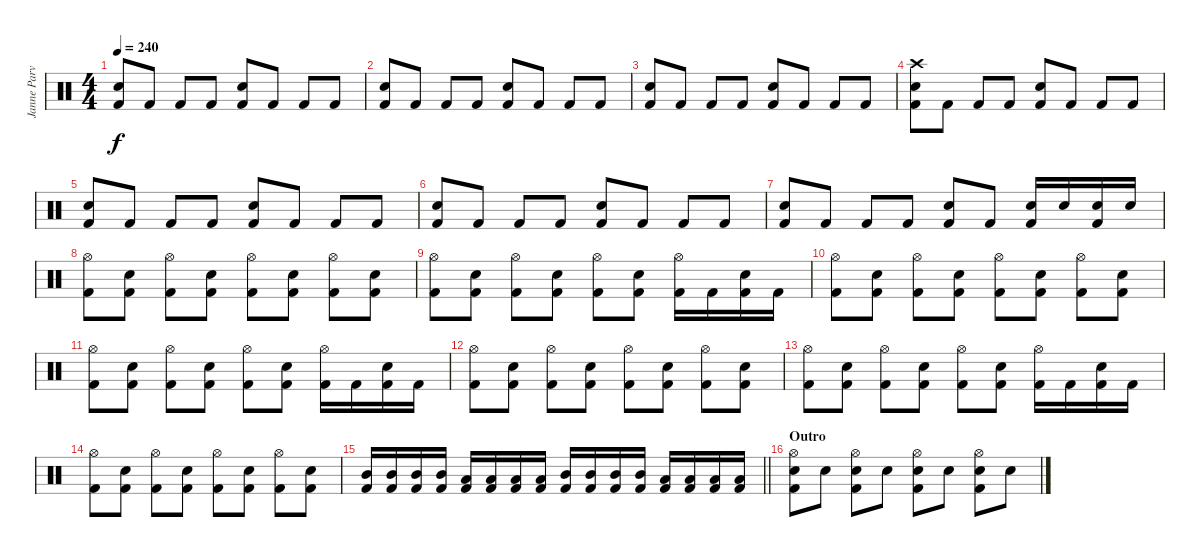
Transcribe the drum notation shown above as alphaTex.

\track ("Janne Parviainen" "Janne Parv") {instrument percussion}
\staff {score}
\articulation defaults
\ts (4 4)
\tempo 240
\clef neutral
\ks c
("Snare (hit) 2" "Kick (hit) 2").8{dy f} "Kick (hit) 2".8 "Kick (hit) 2".8 "Kick (hit) 2".8 ("Snare (hit) 2" "Kick (hit) 2").8 "Kick (hit) 2".8 "Kick (hit) 2".8 "Kick (hit) 2".8 |
("Snare (hit) 2" "Kick (hit) 2").8 "Kick (hit) 2".8 "Kick (hit) 2".8 "Kick (hit) 2".8 ("Snare (hit) 2" "Kick (hit) 2").8 "Kick (hit) 2".8 "Kick (hit) 2".8 "Kick (hit) 2".8 |
("Snare (hit) 2" "Kick (hit) 2").8 "Kick (hit) 2".8 "Kick (hit) 2".8 "Kick (hit) 2".8 ("Snare (hit) 2" "Kick (hit) 2").8 "Kick (hit) 2".8 "Kick (hit) 2".8 "Kick (hit) 2".8 |
("Crash high (hit)" "Snare (hit) 2" "Kick (hit) 2").8 "Kick (hit) 2".8 "Kick (hit) 2".8 "Kick (hit) 2".8 ("Snare (hit) 2" "Kick (hit) 2").8 "Kick (hit) 2".8 "Kick (hit) 2".8 "Kick (hit) 2".8 |
("Snare (hit) 2" "Kick (hit) 2").8 "Kick (hit) 2".8 "Kick (hit) 2".8 "Kick (hit) 2".8 ("Snare (hit) 2" "Kick (hit) 2").8 "Kick (hit) 2".8 "Kick (hit) 2".8 "Kick (hit) 2".8 |
("Snare (hit) 2" "Kick (hit) 2").8 "Kick (hit) 2".8 "Kick (hit) 2".8 "Kick (hit) 2".8 ("Snare (hit) 2" "Kick (hit) 2").8 "Kick (hit) 2".8 "Kick (hit) 2".8 "Kick (hit) 2".8 |
("Snare (hit) 2" "Kick (hit) 2").8 "Kick (hit) 2".8 "Kick (hit) 2".8 "Kick (hit) 2".8 ("Snare (hit) 2" "Kick (hit) 2").8 "Kick (hit) 2".8 ("Snare (hit) 2" "Kick (hit) 2").16 "Snare (hit) 2".16 ("Snare (hit) 2" "Kick (hit) 2").16 "Snare (hit) 2".16 |
("Kick (hit) 2" "Hi-Hat (open)").8 ("Electric Snare (hit)" "Kick (hit) 2").8 ("Kick (hit) 2" "Hi-Hat (open)").8 ("Electric Snare (hit)" "Kick (hit) 2").8 ("Kick (hit) 2" "Hi-Hat (open)").8 ("Electric Snare (hit)" "Kick (hit) 2").8 ("Kick (hit) 2" "Hi-Hat (open)").8 ("Electric Snare (hit)" "Kick (hit) 2").8 |
("Kick (hit) 2" "Hi-Hat (open)").8 ("Electric Snare (hit)" "Kick (hit) 2").8 ("Kick (hit) 2" "Hi-Hat (open)").8 ("Electric Snare (hit)" "Kick (hit) 2").8 ("Kick (hit) 2" "Hi-Hat (open)").8 ("Electric Snare (hit)" "Kick (hit) 2").8 ("Kick (hit) 2" "Hi-Hat (open)").16 "Kick (hit) 2".16 ("Electric Snare (hit)" "Kick (hit) 2").16 "Kick (hit) 2".16 |
("Kick (hit) 2" "Hi-Hat (open)").8 ("Electric Snare (hit)" "Kick (hit) 2").8 ("Kick (hit) 2" "Hi-Hat (open)").8 ("Electric Snare (hit)" "Kick (hit) 2").8 ("Kick (hit) 2" "Hi-Hat (open)").8 ("Electric Snare (hit)" "Kick (hit) 2").8 ("Kick (hit) 2" "Hi-Hat (open)").8 ("Electric Snare (hit)" "Kick (hit) 2").8 |
("Kick (hit) 2" "Hi-Hat (open)").8 ("Electric Snare (hit)" "Kick (hit) 2").8 ("Kick (hit) 2" "Hi-Hat (open)").8 ("Electric Snare (hit)" "Kick (hit) 2").8 ("Kick (hit) 2" "Hi-Hat (open)").8 ("Electric Snare (hit)" "Kick (hit) 2").8 ("Kick (hit) 2" "Hi-Hat (open)").16 "Kick (hit) 2".16 ("Electric Snare (hit)" "Kick (hit) 2").16 "Kick (hit) 2".16 |
("Kick (hit) 2" "Hi-Hat (open)").8 ("Electric Snare (hit)" "Kick (hit) 2").8 ("Kick (hit) 2" "Hi-Hat (open)").8 ("Electric Snare (hit)" "Kick (hit) 2").8 ("Kick (hit) 2" "Hi-Hat (open)").8 ("Electric Snare (hit)" "Kick (hit) 2").8 ("Kick (hit) 2" "Hi-Hat (open)").8 ("Electric Snare (hit)" "Kick (hit) 2").8 |
("Kick (hit) 2" "Hi-Hat (open)").8 ("Electric Snare (hit)" "Kick (hit) 2").8 ("Kick (hit) 2" "Hi-Hat (open)").8 ("Electric Snare (hit)" "Kick (hit) 2").8 ("Kick (hit) 2" "Hi-Hat (open)").8 ("Electric Snare (hit)" "Kick (hit) 2").8 ("Kick (hit) 2" "Hi-Hat (open)").16 "Kick (hit) 2".16 ("Electric Snare (hit)" "Kick (hit) 2").16 "Kick (hit) 2".16 |
("Kick (hit) 2" "Hi-Hat (open)").8 ("Electric Snare (hit)" "Kick (hit) 2").8 ("Kick (hit) 2" "Hi-Hat (open)").8 ("Electric Snare (hit)" "Kick (hit) 2").8 ("Kick (hit) 2" "Hi-Hat (open)").8 ("Electric Snare (hit)" "Kick (hit) 2").8 ("Kick (hit) 2" "Hi-Hat (open)").8 ("Electric Snare (hit)" "Kick (hit) 2").8 |
\barLineRight lightlight
("Mid Tom (hit)" "Kick (hit) 2").16 ("Mid Tom (hit)" "Kick (hit) 2").16 ("Mid Tom (hit)" "Kick (hit) 2").16 ("Mid Tom (hit)" "Kick (hit) 2").16 ("Low Tom (hit)" "Kick (hit) 2").16 ("Low Tom (hit)" "Kick (hit) 2").16 ("Low Tom (hit)" "Kick (hit) 2").16 ("Low Tom (hit)" "Kick (hit) 2").16 ("Mid Tom (hit)" "Kick (hit) 2").16 ("Mid Tom (hit)" "Kick (hit) 2").16 ("Mid Tom (hit)" "Kick (hit) 2").16 ("Mid Tom (hit)" "Kick (hit) 2").16 ("Low Floor Tom (hit)" "Kick (hit) 2").16 ("Low Floor Tom (hit)" "Kick (hit) 2").16 ("Low Floor Tom (hit)" "Kick (hit) 2").16 ("Low Floor Tom (hit)" "Kick (hit) 2").16 |
\section ("" "Outro")
("Kick (hit) 2" "Hi-Hat (open)" "Snare (hit) 2").8 "Snare (hit) 2".8 ("Kick (hit) 2" "Hi-Hat (open)" "Snare (hit) 2").8 "Snare (hit) 2".8 ("Kick (hit) 2" "Hi-Hat (open)" "Snare (hit) 2").8 "Snare (hit) 2".8 ("Kick (hit) 2" "Hi-Hat (open)" "Snare (hit) 2").8 "Snare (hit) 2".8
